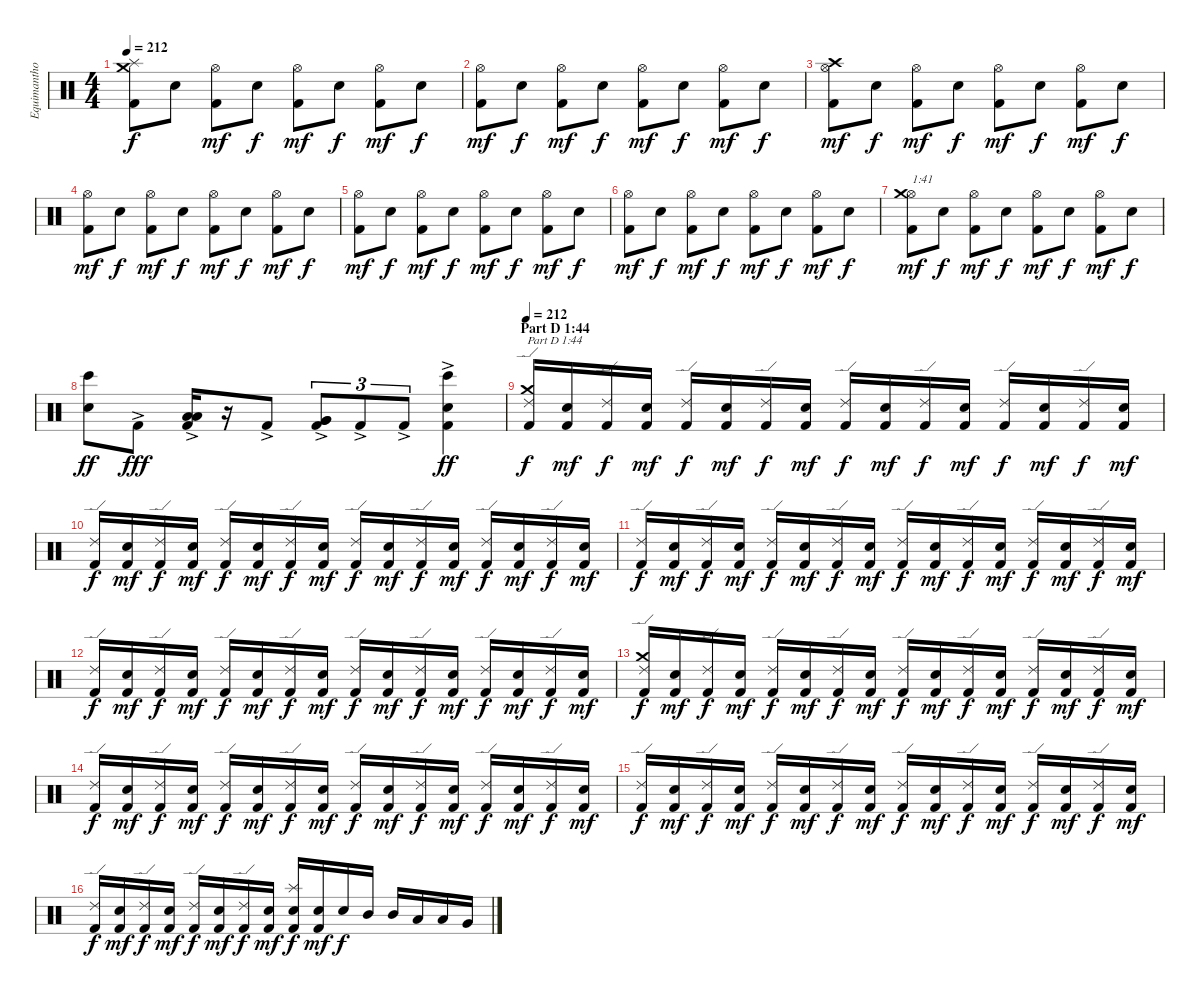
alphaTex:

\track ("Equimanthorn" "Equimantho") {instrument percussion}
\staff {score}
\articulation defaults
\ts (4 4)
\tempo 212
\clef neutral
\ks c
("Kick (hit) 2" "Splash (hit)" "Crash medium (hit)").8{dy f} "Electric Snare (hit)".8 ("Kick (hit) 2" "Hi-Hat (open)").8{dy mf} "Electric Snare (hit)".8{dy f} ("Kick (hit) 2" "Hi-Hat (open)").8{dy mf} "Electric Snare (hit)".8{dy f} ("Kick (hit) 2" "Hi-Hat (open)").8{dy mf} "Electric Snare (hit)".8{dy f} |
("Kick (hit) 2" "Hi-Hat (open)").8{dy mf} "Electric Snare (hit)".8{dy f} ("Kick (hit) 2" "Hi-Hat (open)").8{dy mf} "Electric Snare (hit)".8{dy f} ("Kick (hit) 2" "Hi-Hat (open)").8{dy mf} "Electric Snare (hit)".8{dy f} ("Kick (hit) 2" "Hi-Hat (open)").8{dy mf} "Electric Snare (hit)".8{dy f} |
("Kick (hit) 2" "Hi-Hat (open)" "Crash high (hit)").8{dy mf} "Electric Snare (hit)".8{dy f} ("Kick (hit) 2" "Hi-Hat (open)").8{dy mf} "Electric Snare (hit)".8{dy f} ("Kick (hit) 2" "Hi-Hat (open)").8{dy mf} "Electric Snare (hit)".8{dy f} ("Kick (hit) 2" "Hi-Hat (open)").8{dy mf} "Electric Snare (hit)".8{dy f} |
("Kick (hit) 2" "Hi-Hat (open)").8{dy mf} "Electric Snare (hit)".8{dy f} ("Kick (hit) 2" "Hi-Hat (open)").8{dy mf} "Electric Snare (hit)".8{dy f} ("Kick (hit) 2" "Hi-Hat (open)").8{dy mf} "Electric Snare (hit)".8{dy f} ("Kick (hit) 2" "Hi-Hat (open)").8{dy mf} "Electric Snare (hit)".8{dy f} |
("Kick (hit) 2" "Hi-Hat (open)").8{dy mf} "Electric Snare (hit)".8{dy f} ("Kick (hit) 2" "Hi-Hat (open)").8{dy mf} "Electric Snare (hit)".8{dy f} ("Kick (hit) 2" "Hi-Hat (open)").8{dy mf} "Electric Snare (hit)".8{dy f} ("Kick (hit) 2" "Hi-Hat (open)").8{dy mf} "Electric Snare (hit)".8{dy f} |
("Kick (hit) 2" "Hi-Hat (open)").8{dy mf} "Electric Snare (hit)".8{dy f} ("Kick (hit) 2" "Hi-Hat (open)").8{dy mf} "Electric Snare (hit)".8{dy f} ("Kick (hit) 2" "Hi-Hat (open)").8{dy mf} "Electric Snare (hit)".8{dy f} ("Kick (hit) 2" "Hi-Hat (open)").8{dy mf} "Electric Snare (hit)".8{dy f} |
("Kick (hit) 2" "Hi-Hat (open)" "Crash medium (hit)").8{txt "1:41" dy mf} "Electric Snare (hit)".8{dy f} ("Kick (hit) 2" "Hi-Hat (open)").8{dy mf} "Electric Snare (hit)".8{dy f} ("Kick (hit) 2" "Hi-Hat (open)").8{dy mf} "Electric Snare (hit)".8{dy f} ("Kick (hit) 2" "Hi-Hat (open)").8{dy mf} "Electric Snare (hit)".8{dy f} |
("Bongo High (hit)" "Electric Snare (hit)").8{dy ff} "Kick (hit) 2"{ac}.8{dy fff} ("Kick (hit) 2" "Low Tom (hit)"{ac} "Low Tom (hit)"{ac}).16 r.16 "Kick (hit) 2"{ac}.8 ("Kick (hit) 2" "Very Low Tom (hit)"{ac} "Very Low Tom (hit)"{ac}).8{tu (3 2)} "Kick (hit) 2"{ac}.8{tu (3 2)} "Kick (hit) 2"{ac}.8{tu (3 2)} ("Kick (hit) 2"{ac} "Bongo High (hit)" "Electric Snare (hit)").4{dy ff} |
\section ("" "Part D 1:44")
\tempo 212
("Kick (hit) 2" "Ride (edge) 2" "Crash medium (hit)").16{txt "Part D 1:44" dy f} ("Kick (hit) 2" "Electric Snare (hit)").16{dy mf} ("Kick (hit) 2" "Ride (edge) 2").16{dy f} ("Kick (hit) 2" "Electric Snare (hit)").16{dy mf} ("Kick (hit) 2" "Ride (edge) 2").16{dy f} ("Kick (hit) 2" "Electric Snare (hit)").16{dy mf} ("Kick (hit) 2" "Ride (edge) 2").16{dy f} ("Kick (hit) 2" "Electric Snare (hit)").16{dy mf} ("Kick (hit) 2" "Ride (edge) 2").16{dy f} ("Kick (hit) 2" "Electric Snare (hit)").16{dy mf} ("Kick (hit) 2" "Ride (edge) 2").16{dy f} ("Kick (hit) 2" "Electric Snare (hit)").16{dy mf} ("Kick (hit) 2" "Ride (edge) 2").16{dy f} ("Kick (hit) 2" "Electric Snare (hit)").16{dy mf} ("Kick (hit) 2" "Ride (edge) 2").16{dy f} ("Kick (hit) 2" "Electric Snare (hit)").16{dy mf} |
("Kick (hit) 2" "Ride (edge) 2").16{dy f} ("Kick (hit) 2" "Electric Snare (hit)").16{dy mf} ("Kick (hit) 2" "Ride (edge) 2").16{dy f} ("Kick (hit) 2" "Electric Snare (hit)").16{dy mf} ("Kick (hit) 2" "Ride (edge) 2").16{dy f} ("Kick (hit) 2" "Electric Snare (hit)").16{dy mf} ("Kick (hit) 2" "Ride (edge) 2").16{dy f} ("Kick (hit) 2" "Electric Snare (hit)").16{dy mf} ("Kick (hit) 2" "Ride (edge) 2").16{dy f} ("Kick (hit) 2" "Electric Snare (hit)").16{dy mf} ("Kick (hit) 2" "Ride (edge) 2").16{dy f} ("Kick (hit) 2" "Electric Snare (hit)").16{dy mf} ("Kick (hit) 2" "Ride (edge) 2").16{dy f} ("Kick (hit) 2" "Electric Snare (hit)").16{dy mf} ("Kick (hit) 2" "Ride (edge) 2").16{dy f} ("Kick (hit) 2" "Electric Snare (hit)").16{dy mf} |
("Kick (hit) 2" "Ride (edge) 2").16{dy f} ("Kick (hit) 2" "Electric Snare (hit)").16{dy mf} ("Kick (hit) 2" "Ride (edge) 2").16{dy f} ("Kick (hit) 2" "Electric Snare (hit)").16{dy mf} ("Kick (hit) 2" "Ride (edge) 2").16{dy f} ("Kick (hit) 2" "Electric Snare (hit)").16{dy mf} ("Kick (hit) 2" "Ride (edge) 2").16{dy f} ("Kick (hit) 2" "Electric Snare (hit)").16{dy mf} ("Kick (hit) 2" "Ride (edge) 2").16{dy f} ("Kick (hit) 2" "Electric Snare (hit)").16{dy mf} ("Kick (hit) 2" "Ride (edge) 2").16{dy f} ("Kick (hit) 2" "Electric Snare (hit)").16{dy mf} ("Kick (hit) 2" "Ride (edge) 2").16{dy f} ("Kick (hit) 2" "Electric Snare (hit)").16{dy mf} ("Kick (hit) 2" "Ride (edge) 2").16{dy f} ("Kick (hit) 2" "Electric Snare (hit)").16{dy mf} |
("Kick (hit) 2" "Ride (edge) 2").16{dy f} ("Kick (hit) 2" "Electric Snare (hit)").16{dy mf} ("Kick (hit) 2" "Ride (edge) 2").16{dy f} ("Kick (hit) 2" "Electric Snare (hit)").16{dy mf} ("Kick (hit) 2" "Ride (edge) 2").16{dy f} ("Kick (hit) 2" "Electric Snare (hit)").16{dy mf} ("Kick (hit) 2" "Ride (edge) 2").16{dy f} ("Kick (hit) 2" "Electric Snare (hit)").16{dy mf} ("Kick (hit) 2" "Ride (edge) 2").16{dy f} ("Kick (hit) 2" "Electric Snare (hit)").16{dy mf} ("Kick (hit) 2" "Ride (edge) 2").16{dy f} ("Kick (hit) 2" "Electric Snare (hit)").16{dy mf} ("Kick (hit) 2" "Ride (edge) 2").16{dy f} ("Kick (hit) 2" "Electric Snare (hit)").16{dy mf} ("Kick (hit) 2" "Ride (edge) 2").16{dy f} ("Kick (hit) 2" "Electric Snare (hit)").16{dy mf} |
("Kick (hit) 2" "Ride (edge) 2" "Crash medium (hit)").16{dy f} ("Kick (hit) 2" "Electric Snare (hit)").16{dy mf} ("Kick (hit) 2" "Ride (edge) 2").16{dy f} ("Kick (hit) 2" "Electric Snare (hit)").16{dy mf} ("Kick (hit) 2" "Ride (edge) 2").16{dy f} ("Kick (hit) 2" "Electric Snare (hit)").16{dy mf} ("Kick (hit) 2" "Ride (edge) 2").16{dy f} ("Kick (hit) 2" "Electric Snare (hit)").16{dy mf} ("Kick (hit) 2" "Ride (edge) 2").16{dy f} ("Kick (hit) 2" "Electric Snare (hit)").16{dy mf} ("Kick (hit) 2" "Ride (edge) 2").16{dy f} ("Kick (hit) 2" "Electric Snare (hit)").16{dy mf} ("Kick (hit) 2" "Ride (edge) 2").16{dy f} ("Kick (hit) 2" "Electric Snare (hit)").16{dy mf} ("Kick (hit) 2" "Ride (edge) 2").16{dy f} ("Kick (hit) 2" "Electric Snare (hit)").16{dy mf} |
("Kick (hit) 2" "Ride (edge) 2").16{dy f} ("Kick (hit) 2" "Electric Snare (hit)").16{dy mf} ("Kick (hit) 2" "Ride (edge) 2").16{dy f} ("Kick (hit) 2" "Electric Snare (hit)").16{dy mf} ("Kick (hit) 2" "Ride (edge) 2").16{dy f} ("Kick (hit) 2" "Electric Snare (hit)").16{dy mf} ("Kick (hit) 2" "Ride (edge) 2").16{dy f} ("Kick (hit) 2" "Electric Snare (hit)").16{dy mf} ("Kick (hit) 2" "Ride (edge) 2").16{dy f} ("Kick (hit) 2" "Electric Snare (hit)").16{dy mf} ("Kick (hit) 2" "Ride (edge) 2").16{dy f} ("Kick (hit) 2" "Electric Snare (hit)").16{dy mf} ("Kick (hit) 2" "Ride (edge) 2").16{dy f} ("Kick (hit) 2" "Electric Snare (hit)").16{dy mf} ("Kick (hit) 2" "Ride (edge) 2").16{dy f} ("Kick (hit) 2" "Electric Snare (hit)").16{dy mf} |
("Kick (hit) 2" "Ride (edge) 2").16{dy f} ("Kick (hit) 2" "Electric Snare (hit)").16{dy mf} ("Kick (hit) 2" "Ride (edge) 2").16{dy f} ("Kick (hit) 2" "Electric Snare (hit)").16{dy mf} ("Kick (hit) 2" "Ride (edge) 2").16{dy f} ("Kick (hit) 2" "Electric Snare (hit)").16{dy mf} ("Kick (hit) 2" "Ride (edge) 2").16{dy f} ("Kick (hit) 2" "Electric Snare (hit)").16{dy mf} ("Kick (hit) 2" "Ride (edge) 2").16{dy f} ("Kick (hit) 2" "Electric Snare (hit)").16{dy mf} ("Kick (hit) 2" "Ride (edge) 2").16{dy f} ("Kick (hit) 2" "Electric Snare (hit)").16{dy mf} ("Kick (hit) 2" "Ride (edge) 2").16{dy f} ("Kick (hit) 2" "Electric Snare (hit)").16{dy mf} ("Kick (hit) 2" "Ride (edge) 2").16{dy f} ("Kick (hit) 2" "Electric Snare (hit)").16{dy mf} |
("Kick (hit) 2" "Ride (edge) 2").16{dy f} ("Kick (hit) 2" "Electric Snare (hit)").16{dy mf} ("Kick (hit) 2" "Ride (edge) 2").16{dy f} ("Kick (hit) 2" "Electric Snare (hit)").16{dy mf} ("Kick (hit) 2" "Ride (edge) 2").16{dy f} ("Kick (hit) 2" "Electric Snare (hit)").16{dy mf} ("Kick (hit) 2" "Ride (edge) 2").16{dy f} ("Kick (hit) 2" "Electric Snare (hit)").16{dy mf} ("Kick (hit) 2" "Electric Snare (hit)" "Splash (hit)").16{dy f} ("Kick (hit) 2" "Electric Snare (hit)").16{dy mf} "Electric Snare (hit)".16{dy f} "Mid Tom (hit)".16 "Mid Tom (hit)".16 "Low Tom (hit)".16 "Low Tom (hit)".16 "Very Low Tom (hit)".16
